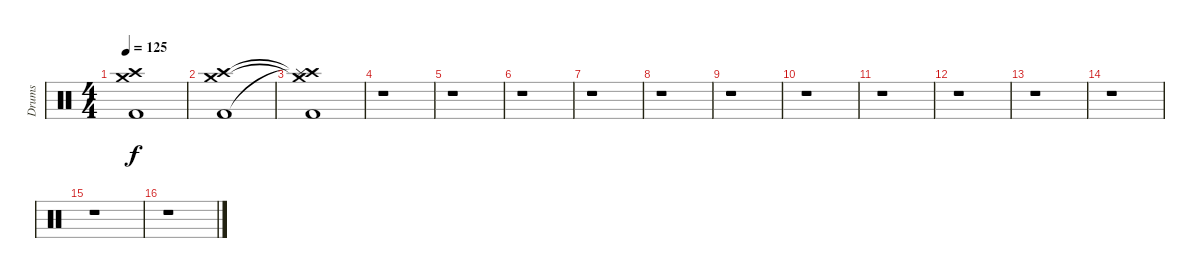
\track ("Drums" "Drums") {instrument percussion}
\staff {score}
\articulation defaults
\ts (4 4)
\tempo 125
\clef neutral
\ks c
("Crash high (hit)" "Crash medium (hit)" "Kick (hit) 2").1{dy f} |
("Crash high (hit)" "Crash medium (hit)" "Kick (hit) 2").1 |
("Crash high (hit)"{t} "Crash medium (hit)"{t} "Splash (hit)"{t} "Kick (hit) 2").1 |
r.1 |
r.1 |
r.1 |
r.1 |
r.1 |
r.1 |
r.1 |
r.1 |
r.1 |
r.1 |
r.1 |
r.1 |
r.1
